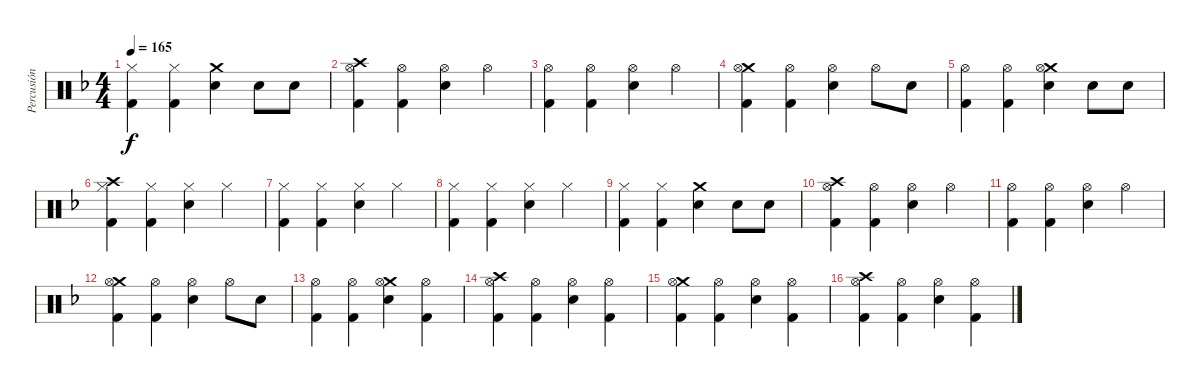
\track ("Percusión" "Percusión") {instrument percussion}
\staff {score}
\articulation defaults
\ts (4 4)
\tempo 165
\clef neutral
\ks f
("Hi-Hat (closed)" "Kick (hit) 2").4{dy f} ("Hi-Hat (closed)" "Kick (hit) 2").4 ("Crash medium (hit)" "Electric Snare (hit)").4 "Electric Snare (hit)".8 "Electric Snare (hit)".8 |
("Crash high (hit)" "Hi-Hat (open)" "Kick (hit) 2").4 ("Hi-Hat (open)" "Kick (hit) 2").4 ("Hi-Hat (open)" "Electric Snare (hit)").4 "Hi-Hat (open)".4 |
("Hi-Hat (open)" "Kick (hit) 2").4 ("Hi-Hat (open)" "Kick (hit) 2").4 ("Hi-Hat (open)" "Electric Snare (hit)").4 "Hi-Hat (open)".4 |
("Crash medium (hit)" "Hi-Hat (open)" "Kick (hit) 2").4 ("Hi-Hat (open)" "Kick (hit) 2").4 ("Hi-Hat (open)" "Electric Snare (hit)").4 "Hi-Hat (open)".8 "Electric Snare (hit)".8 |
("Hi-Hat (open)" "Kick (hit) 2").4 ("Hi-Hat (open)" "Kick (hit) 2").4 ("Crash medium (hit)" "Hi-Hat (open)" "Electric Snare (hit)").4 "Electric Snare (hit)".8 "Electric Snare (hit)".8 |
("Crash high (hit)" "Hi-Hat (closed)" "Kick (hit) 2").4 ("Hi-Hat (closed)" "Kick (hit) 2").4 ("Hi-Hat (closed)" "Electric Snare (hit)").4 "Hi-Hat (closed)".4 |
("Hi-Hat (closed)" "Kick (hit) 2").4 ("Hi-Hat (closed)" "Kick (hit) 2").4 ("Hi-Hat (closed)" "Electric Snare (hit)").4 "Hi-Hat (closed)".4 |
("Hi-Hat (closed)" "Kick (hit) 2").4 ("Hi-Hat (closed)" "Kick (hit) 2").4 ("Hi-Hat (closed)" "Electric Snare (hit)").4 "Hi-Hat (closed)".4 |
("Hi-Hat (closed)" "Kick (hit) 2").4 ("Hi-Hat (closed)" "Kick (hit) 2").4 ("Crash medium (hit)" "Electric Snare (hit)").4 "Electric Snare (hit)".8 "Electric Snare (hit)".8 |
("Crash high (hit)" "Hi-Hat (open)" "Kick (hit) 2").4 ("Hi-Hat (open)" "Kick (hit) 2").4 ("Hi-Hat (open)" "Electric Snare (hit)").4 "Hi-Hat (open)".4 |
("Hi-Hat (open)" "Kick (hit) 2").4 ("Hi-Hat (open)" "Kick (hit) 2").4 ("Hi-Hat (open)" "Electric Snare (hit)").4 "Hi-Hat (open)".4 |
("Crash medium (hit)" "Hi-Hat (open)" "Kick (hit) 2").4 ("Hi-Hat (open)" "Kick (hit) 2").4 ("Hi-Hat (open)" "Electric Snare (hit)").4 "Hi-Hat (open)".8 "Electric Snare (hit)".8 |
("Hi-Hat (open)" "Kick (hit) 2").4 ("Hi-Hat (open)" "Kick (hit) 2").4 ("Crash medium (hit)" "Hi-Hat (open)" "Electric Snare (hit)").4 ("Hi-Hat (open)" "Kick (hit) 2").4 |
("Crash high (hit)" "Hi-Hat (open)" "Kick (hit) 2").4 ("Hi-Hat (open)" "Kick (hit) 2").4 ("Hi-Hat (open)" "Electric Snare (hit)").4 ("Hi-Hat (open)" "Kick (hit) 2").4 |
("Crash medium (hit)" "Hi-Hat (open)" "Kick (hit) 2").4 ("Hi-Hat (open)" "Kick (hit) 2").4 ("Hi-Hat (open)" "Electric Snare (hit)").4 ("Hi-Hat (open)" "Kick (hit) 2").4 |
("Crash high (hit)" "Hi-Hat (open)" "Kick (hit) 2").4 ("Hi-Hat (open)" "Kick (hit) 2").4 ("Hi-Hat (open)" "Electric Snare (hit)").4 ("Hi-Hat (open)" "Kick (hit) 2").4
